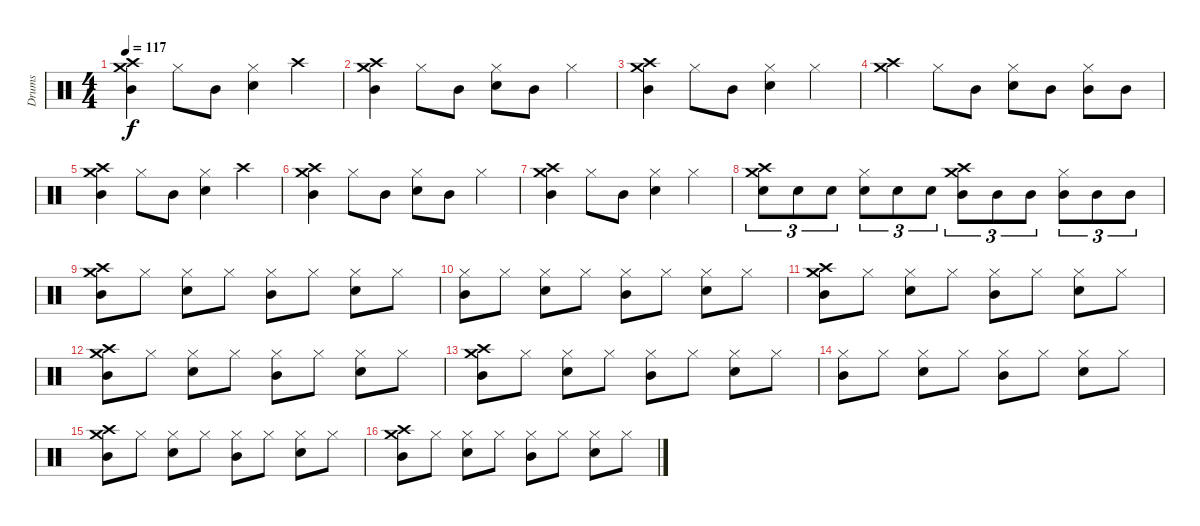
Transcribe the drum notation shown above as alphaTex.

\track ("Drums" "Drums") {instrument percussion}
\staff {score}
\articulation defaults
\ts (4 4)
\tempo 117
\clef neutral
\ks c
("Crash high (hit)" "Crash medium (hit)" "Mid Tom (hit)").4{dy f} "Hi-Hat (closed)".8 "Mid Tom (hit)".8 ("Hi-Hat (closed)" "Electric Snare (hit)").4 "Crash high (hit)".4 |
("Crash high (hit)" "Crash medium (hit)" "Mid Tom (hit)").4 "Hi-Hat (closed)".8 "Mid Tom (hit)".8 ("Hi-Hat (closed)" "Electric Snare (hit)").8 "Mid Tom (hit)".8 "Hi-Hat (closed)".4 |
("Crash high (hit)" "Crash medium (hit)" "Mid Tom (hit)").4 "Hi-Hat (closed)".8 "Mid Tom (hit)".8 ("Hi-Hat (closed)" "Electric Snare (hit)").4 "Hi-Hat (closed)".4 |
("Crash high (hit)" "Crash medium (hit)").4 "Hi-Hat (closed)".8 "Mid Tom (hit)".8 ("Hi-Hat (closed)" "Electric Snare (hit)").8 "Mid Tom (hit)".8 ("Hi-Hat (closed)" "Mid Tom (hit)").8 "Mid Tom (hit)".8 |
("Crash high (hit)" "Crash medium (hit)" "Mid Tom (hit)").4 "Hi-Hat (closed)".8 "Mid Tom (hit)".8 ("Hi-Hat (closed)" "Electric Snare (hit)").4 "Crash high (hit)".4 |
("Crash high (hit)" "Crash medium (hit)" "Mid Tom (hit)").4 "Hi-Hat (closed)".8 "Mid Tom (hit)".8 ("Hi-Hat (closed)" "Electric Snare (hit)").8 "Mid Tom (hit)".8 "Hi-Hat (closed)".4 |
("Crash high (hit)" "Crash medium (hit)" "Mid Tom (hit)").4 "Hi-Hat (closed)".8 "Mid Tom (hit)".8 ("Hi-Hat (closed)" "Electric Snare (hit)").4 "Hi-Hat (closed)".4 |
("Crash high (hit)" "Crash medium (hit)" "Electric Snare (hit)").8{tu (3 2)} "Electric Snare (hit)".8{tu (3 2)} "Electric Snare (hit)".8{tu (3 2)} ("Hi-Hat (closed)" "Electric Snare (hit)").8{tu (3 2)} "Electric Snare (hit)".8{tu (3 2)} "Electric Snare (hit)".8{tu (3 2)} ("Crash high (hit)" "Crash medium (hit)" "Mid Tom (hit)").8{tu (3 2)} "Mid Tom (hit)".8{tu (3 2)} "Mid Tom (hit)".8{tu (3 2)} ("Hi-Hat (closed)" "Mid Tom (hit)").8{tu (3 2)} "Mid Tom (hit)".8{tu (3 2)} "Mid Tom (hit)".8{tu (3 2)} |
("Crash high (hit)" "Crash medium (hit)" "Mid Tom (hit)").8 "Hi-Hat (closed)".8 ("Hi-Hat (closed)" "Electric Snare (hit)").8 "Hi-Hat (closed)".8 ("Hi-Hat (closed)" "Mid Tom (hit)").8 "Hi-Hat (closed)".8 ("Hi-Hat (closed)" "Electric Snare (hit)").8 "Hi-Hat (closed)".8 |
("Hi-Hat (closed)" "Mid Tom (hit)").8 "Hi-Hat (closed)".8 ("Hi-Hat (closed)" "Electric Snare (hit)").8 "Hi-Hat (closed)".8 ("Hi-Hat (closed)" "Mid Tom (hit)").8 "Hi-Hat (closed)".8 ("Hi-Hat (closed)" "Electric Snare (hit)").8 "Hi-Hat (closed)".8 |
("Crash high (hit)" "Crash medium (hit)" "Mid Tom (hit)").8 "Hi-Hat (closed)".8 ("Hi-Hat (closed)" "Electric Snare (hit)").8 "Hi-Hat (closed)".8 ("Hi-Hat (closed)" "Mid Tom (hit)").8 "Hi-Hat (closed)".8 ("Hi-Hat (closed)" "Electric Snare (hit)").8 "Hi-Hat (closed)".8 |
("Crash high (hit)" "Crash medium (hit)" "Mid Tom (hit)").8 "Hi-Hat (closed)".8 ("Hi-Hat (closed)" "Electric Snare (hit)").8 "Hi-Hat (closed)".8 ("Hi-Hat (closed)" "Mid Tom (hit)").8 "Hi-Hat (closed)".8 ("Hi-Hat (closed)" "Electric Snare (hit)").8 "Hi-Hat (closed)".8 |
("Crash high (hit)" "Crash medium (hit)" "Mid Tom (hit)").8 "Hi-Hat (closed)".8 ("Hi-Hat (closed)" "Electric Snare (hit)").8 "Hi-Hat (closed)".8 ("Hi-Hat (closed)" "Mid Tom (hit)").8 "Hi-Hat (closed)".8 ("Hi-Hat (closed)" "Electric Snare (hit)").8 "Hi-Hat (closed)".8 |
("Hi-Hat (closed)" "Mid Tom (hit)").8 "Hi-Hat (closed)".8 ("Hi-Hat (closed)" "Electric Snare (hit)").8 "Hi-Hat (closed)".8 ("Hi-Hat (closed)" "Mid Tom (hit)").8 "Hi-Hat (closed)".8 ("Hi-Hat (closed)" "Electric Snare (hit)").8 "Hi-Hat (closed)".8 |
("Crash high (hit)" "Crash medium (hit)" "Mid Tom (hit)").8 "Hi-Hat (closed)".8 ("Hi-Hat (closed)" "Electric Snare (hit)").8 "Hi-Hat (closed)".8 ("Hi-Hat (closed)" "Mid Tom (hit)").8 "Hi-Hat (closed)".8 ("Hi-Hat (closed)" "Electric Snare (hit)").8 "Hi-Hat (closed)".8 |
("Crash high (hit)" "Crash medium (hit)" "Mid Tom (hit)").8 "Hi-Hat (closed)".8 ("Hi-Hat (closed)" "Electric Snare (hit)").8 "Hi-Hat (closed)".8 ("Hi-Hat (closed)" "Mid Tom (hit)").8 "Hi-Hat (closed)".8 ("Hi-Hat (closed)" "Electric Snare (hit)").8 "Hi-Hat (closed)".8
